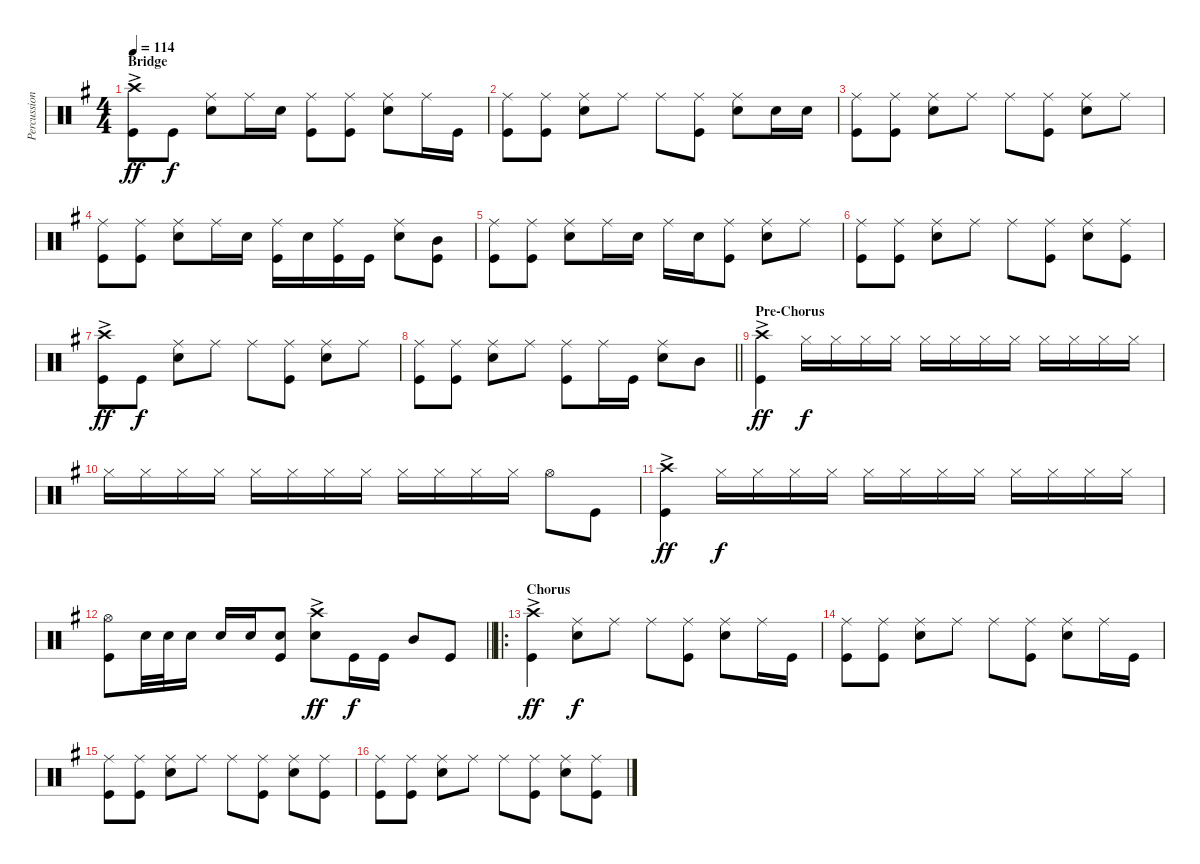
\track ("Percussion" "Percussion") {instrument percussion}
\staff {score}
\articulation defaults
\ts (4 4)
\section ("" "Bridge")
\tempo 114
\clef neutral
\ks g
("Crash high (hit)"{ac} "Kick (hit)").8{dy ff} "Kick (hit)".8{dy f} ("Ride (middle)" "Snare (hit) 2").8 "Ride (middle)".16 "Snare (hit) 2".16 ("Ride (middle)" "Kick (hit)").8 ("Ride (middle)" "Kick (hit)").8 ("Ride (middle)" "Snare (hit) 2").8 "Ride (middle)".16 "Kick (hit)".16 |
("Ride (middle)" "Kick (hit)").8 ("Ride (middle)" "Kick (hit)").8 ("Ride (middle)" "Snare (hit) 2").8 "Ride (middle)".8 "Ride (middle)".8 ("Ride (middle)" "Kick (hit)").8 ("Ride (middle)" "Snare (hit) 2").8 "Snare (hit) 2".16 "Snare (hit) 2".16 |
("Ride (middle)" "Kick (hit)").8 ("Ride (middle)" "Kick (hit)").8 ("Ride (middle)" "Snare (hit) 2").8 "Ride (middle)".8 "Ride (middle)".8 ("Ride (middle)" "Kick (hit)").8 ("Ride (middle)" "Snare (hit) 2").8 "Ride (middle)".8 |
("Ride (middle)" "Kick (hit)").8 ("Ride (middle)" "Kick (hit)").8 ("Ride (middle)" "Snare (hit) 2").8 "Ride (middle)".16 "Snare (hit) 2".16 ("Ride (middle)" "Kick (hit)").16 "Snare (hit) 2".16 ("Ride (middle)" "Kick (hit)").16 "Kick (hit)".16 ("Ride (middle)" "Snare (hit) 2").8 ("Mid Tom (hit)" "Kick (hit)").8 |
("Ride (middle)" "Kick (hit)").8 ("Ride (middle)" "Kick (hit)").8 ("Ride (middle)" "Snare (hit) 2").8 "Ride (middle)".16 "Snare (hit) 2".16 "Ride (middle)".16 "Snare (hit) 2".16 ("Ride (middle)" "Kick (hit)").8 ("Ride (middle)" "Snare (hit) 2").8 "Ride (middle)".8 |
("Ride (middle)" "Kick (hit)").8 ("Ride (middle)" "Kick (hit)").8 ("Ride (middle)" "Snare (hit) 2").8 "Ride (middle)".8 "Ride (middle)".8 ("Ride (middle)" "Kick (hit)").8 ("Ride (middle)" "Snare (hit) 2").8 ("Ride (middle)" "Kick (hit)").8 |
("Crash high (hit)"{ac} "Kick (hit)").8{dy ff} "Kick (hit)".8{dy f} ("Ride (middle)" "Snare (hit) 2").8 "Ride (middle)".8 "Ride (middle)".8 ("Ride (middle)" "Kick (hit)").8 ("Ride (middle)" "Snare (hit) 2").8 "Ride (middle)".8 |
\barLineRight lightlight
("Ride (middle)" "Kick (hit)").8 ("Ride (middle)" "Kick (hit)").8 ("Ride (middle)" "Snare (hit) 2").8 "Ride (middle)".8 ("Ride (middle)" "Kick (hit)").8 "Ride (middle)".16 "Kick (hit)".16 ("Ride (middle)" "Snare (hit) 2").8 "Mid Tom (hit)".8 |
\section ("" "Pre-Chorus")
("Crash high (hit)"{ac} "Kick (hit)").4{dy ff} "Hi-Hat (closed)".16{dy f} "Hi-Hat (closed)".16 "Hi-Hat (closed)".16 "Hi-Hat (closed)".16 "Hi-Hat (closed)".16 "Hi-Hat (closed)".16 "Hi-Hat (closed)".16 "Hi-Hat (closed)".16 "Hi-Hat (closed)".16 "Hi-Hat (closed)".16 "Hi-Hat (closed)".16 "Hi-Hat (closed)".16 |
"Hi-Hat (closed)".16 "Hi-Hat (closed)".16 "Hi-Hat (closed)".16 "Hi-Hat (closed)".16 "Hi-Hat (closed)".16 "Hi-Hat (closed)".16 "Hi-Hat (closed)".16 "Hi-Hat (closed)".16 "Hi-Hat (closed)".16 "Hi-Hat (closed)".16 "Hi-Hat (closed)".16 "Hi-Hat (closed)".16 "Hi-Hat (open)".8 "Kick (hit)".8 |
("Crash high (hit)"{ac} "Kick (hit)").4{dy ff} "Hi-Hat (closed)".16{dy f} "Hi-Hat (closed)".16 "Hi-Hat (closed)".16 "Hi-Hat (closed)".16 "Hi-Hat (closed)".16 "Hi-Hat (closed)".16 "Hi-Hat (closed)".16 "Hi-Hat (closed)".16 "Hi-Hat (closed)".16 "Hi-Hat (closed)".16 "Hi-Hat (closed)".16 "Hi-Hat (closed)".16 |
\barLineRight lightlight
("Hi-Hat (open)" "Kick (hit)").8 "Snare (hit) 2".32 "Snare (hit) 2".32 "Snare (hit) 2".16 "Snare (hit) 2".16 "Snare (hit) 2".16 ("Snare (hit) 2" "Kick (hit)").8 ("Crash high (hit)"{ac} "Snare (hit) 2").8{dy ff} "Kick (hit)".16{dy f} "Kick (hit)".16 "Mid Tom (hit)".8 "Kick (hit)".8 |
\ro
\section ("" "Chorus")
("Crash high (hit)"{ac} "Kick (hit)").4{dy ff} ("Ride (middle)" "Snare (hit) 2").8{dy f} "Ride (middle)".8 "Ride (middle)".8 ("Ride (middle)" "Kick (hit)").8 ("Ride (middle)" "Snare (hit) 2").8 "Ride (middle)".16 "Kick (hit)".16 |
("Ride (middle)" "Kick (hit)").8 ("Ride (middle)" "Kick (hit)").8 ("Ride (middle)" "Snare (hit) 2").8 "Ride (middle)".8 "Ride (middle)".8 ("Ride (middle)" "Kick (hit)").8 ("Ride (middle)" "Snare (hit) 2").8 "Ride (middle)".16 "Kick (hit)".16 |
("Ride (middle)" "Kick (hit)").8 ("Ride (middle)" "Kick (hit)").8 ("Ride (middle)" "Snare (hit) 2").8 "Ride (middle)".8 "Ride (middle)".8 ("Ride (middle)" "Kick (hit)").8 ("Ride (middle)" "Snare (hit) 2").8 ("Ride (middle)" "Kick (hit)").8 |
("Ride (middle)" "Kick (hit)").8 ("Ride (middle)" "Kick (hit)").8 ("Ride (middle)" "Snare (hit) 2").8 "Ride (middle)".8 "Ride (middle)".8 ("Ride (middle)" "Kick (hit)").8 ("Ride (middle)" "Snare (hit) 2").8 ("Ride (middle)" "Kick (hit)").8
